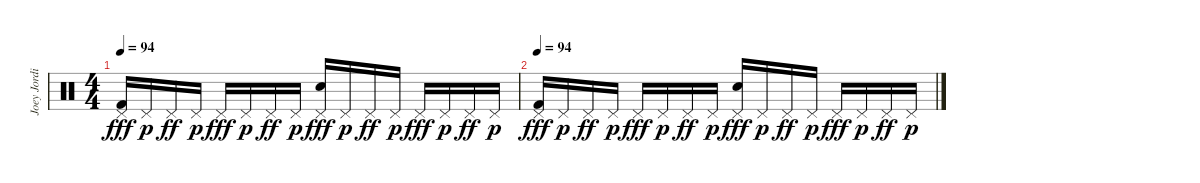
\track ("Joey Jordison" "Joey Jordi") {instrument percussion}
\staff {score}
\articulation defaults
\ts (4 4)
\tempo 94
\clef neutral
\ks c
("Pedal Hi-Hat (hit)" "Kick (hit) 2").16{dy fff} "Pedal Hi-Hat (hit)".16{dy p} "Pedal Hi-Hat (hit)".16{dy ff} "Pedal Hi-Hat (hit)".16{dy p} "Pedal Hi-Hat (hit)".16{dy fff} "Pedal Hi-Hat (hit)".16{dy p} "Pedal Hi-Hat (hit)".16{dy ff} "Pedal Hi-Hat (hit)".16{dy p} ("Pedal Hi-Hat (hit)" "Snare (hit) 2").16{dy fff} "Pedal Hi-Hat (hit)".16{dy p} "Pedal Hi-Hat (hit)".16{dy ff} "Pedal Hi-Hat (hit)".16{dy p} "Pedal Hi-Hat (hit)".16{dy fff} "Pedal Hi-Hat (hit)".16{dy p} "Pedal Hi-Hat (hit)".16{dy ff} "Pedal Hi-Hat (hit)".16{dy p} |
\tempo 94
("Pedal Hi-Hat (hit)" "Kick (hit) 2").16{dy fff} "Pedal Hi-Hat (hit)".16{dy p} "Pedal Hi-Hat (hit)".16{dy ff} "Pedal Hi-Hat (hit)".16{dy p} "Pedal Hi-Hat (hit)".16{dy fff} "Pedal Hi-Hat (hit)".16{dy p} "Pedal Hi-Hat (hit)".16{dy ff} "Pedal Hi-Hat (hit)".16{dy p} ("Pedal Hi-Hat (hit)" "Snare (hit) 2").16{dy fff} "Pedal Hi-Hat (hit)".16{dy p} "Pedal Hi-Hat (hit)".16{dy ff} "Pedal Hi-Hat (hit)".16{dy p} "Pedal Hi-Hat (hit)".16{dy fff} "Pedal Hi-Hat (hit)".16{dy p} "Pedal Hi-Hat (hit)".16{dy ff} "Pedal Hi-Hat (hit)".16{dy p}
